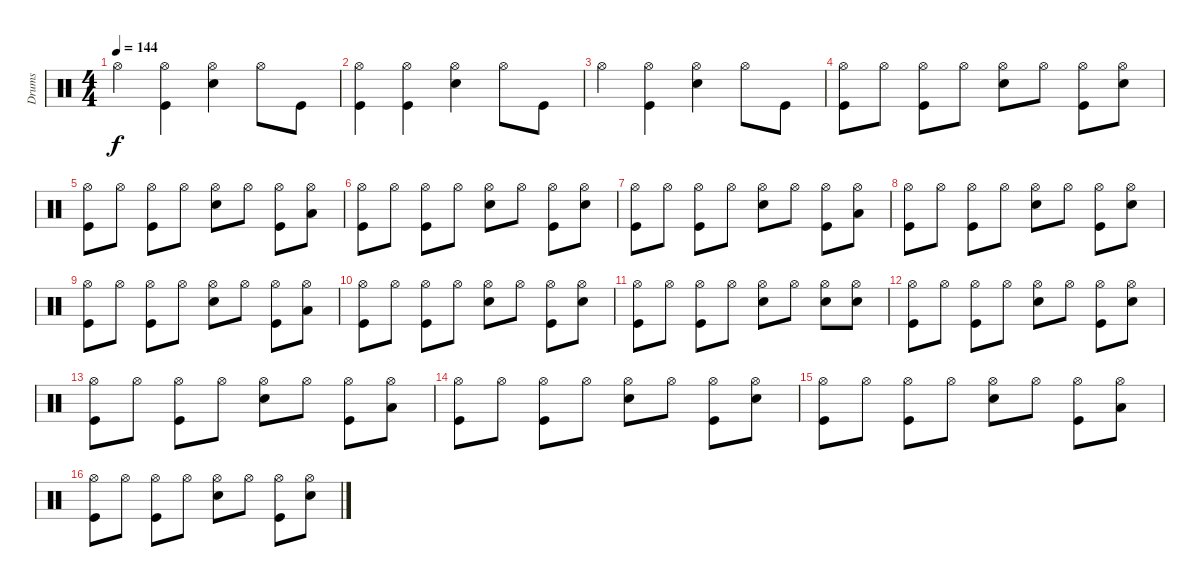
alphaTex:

\track ("Drums               " "Drums     ") {instrument percussion}
\staff {score}
\articulation defaults
\ts (4 4)
\tempo 144
\clef neutral
\ks c "Hi-Hat (open)".4{dy f}
("Hi-Hat (open)" "Kick (hit)").4 ("Snare (hit) 2" "Hi-Hat (open)").4 "Hi-Hat (open)".8 "Kick (hit)".8 |
("Kick (hit)" "Hi-Hat (open)").4 ("Kick (hit)" "Hi-Hat (open)").4 ("Snare (hit) 2" "Hi-Hat (open)").4 "Hi-Hat (open)".8 "Kick (hit)".8 |
"Hi-Hat (open)".4 ("Hi-Hat (open)" "Kick (hit)").4 ("Snare (hit) 2" "Hi-Hat (open)").4 "Hi-Hat (open)".8 "Kick (hit)".8 |
("Kick (hit)" "Hi-Hat (open)").8 "Hi-Hat (open)".8 ("Kick (hit)" "Hi-Hat (open)").8 "Hi-Hat (open)".8 ("Snare (hit) 2" "Hi-Hat (open)").8 "Hi-Hat (open)".8 ("Kick (hit)" "Hi-Hat (open)").8 ("Snare (hit) 2" "Hi-Hat (open)").8 |
("Hi-Hat (open)" "Kick (hit)").8 "Hi-Hat (open)".8 ("Kick (hit)" "Hi-Hat (open)").8 "Hi-Hat (open)".8 ("Snare (hit) 2" "Hi-Hat (open)").8 "Hi-Hat (open)".8 ("Kick (hit)" "Hi-Hat (open)").8 ("Low Tom (hit)" "Hi-Hat (open)").8 |
("Kick (hit)" "Hi-Hat (open)").8 "Hi-Hat (open)".8 ("Kick (hit)" "Hi-Hat (open)").8 "Hi-Hat (open)".8 ("Snare (hit) 2" "Hi-Hat (open)").8 "Hi-Hat (open)".8 ("Kick (hit)" "Hi-Hat (open)").8 ("Snare (hit) 2" "Hi-Hat (open)").8 |
("Kick (hit)" "Hi-Hat (open)").8 "Hi-Hat (open)".8 ("Kick (hit)" "Hi-Hat (open)").8 "Hi-Hat (open)".8 ("Snare (hit) 2" "Hi-Hat (open)").8 "Hi-Hat (open)".8 ("Kick (hit)" "Hi-Hat (open)").8 ("Low Tom (hit)" "Hi-Hat (open)").8 |
("Kick (hit)" "Hi-Hat (open)").8 "Hi-Hat (open)".8 ("Kick (hit)" "Hi-Hat (open)").8 "Hi-Hat (open)".8 ("Snare (hit) 2" "Hi-Hat (open)").8 "Hi-Hat (open)".8 ("Hi-Hat (open)" "Kick (hit)").8 ("Snare (hit) 2" "Hi-Hat (open)").8 |
("Kick (hit)" "Hi-Hat (open)").8 "Hi-Hat (open)".8 ("Kick (hit)" "Hi-Hat (open)").8 "Hi-Hat (open)".8 ("Snare (hit) 2" "Hi-Hat (open)").8 "Hi-Hat (open)".8 ("Kick (hit)" "Hi-Hat (open)").8 ("Low Tom (hit)" "Hi-Hat (open)").8 |
("Kick (hit)" "Hi-Hat (open)").8 "Hi-Hat (open)".8 ("Kick (hit)" "Hi-Hat (open)").8 "Hi-Hat (open)".8 ("Snare (hit) 2" "Hi-Hat (open)").8 "Hi-Hat (open)".8 ("Hi-Hat (open)" "Kick (hit)").8 ("Snare (hit) 2" "Hi-Hat (open)").8 |
("Kick (hit)" "Hi-Hat (open)").8 "Hi-Hat (open)".8 ("Kick (hit)" "Hi-Hat (open)").8 "Hi-Hat (open)".8 ("Snare (hit) 2" "Hi-Hat (open)").8 "Hi-Hat (open)".8 ("Hi-Hat (open)" "Snare (hit) 2").8 ("Snare (hit) 2" "Hi-Hat (open)").8 |
("Kick (hit)" "Hi-Hat (open)").8 "Hi-Hat (open)".8 ("Kick (hit)" "Hi-Hat (open)").8 "Hi-Hat (open)".8 ("Snare (hit) 2" "Hi-Hat (open)").8 "Hi-Hat (open)".8 ("Kick (hit)" "Hi-Hat (open)").8 ("Snare (hit) 2" "Hi-Hat (open)").8 |
("Hi-Hat (open)" "Kick (hit)").8 "Hi-Hat (open)".8 ("Kick (hit)" "Hi-Hat (open)").8 "Hi-Hat (open)".8 ("Snare (hit) 2" "Hi-Hat (open)").8 "Hi-Hat (open)".8 ("Kick (hit)" "Hi-Hat (open)").8 ("Low Tom (hit)" "Hi-Hat (open)").8 |
("Kick (hit)" "Hi-Hat (open)").8 "Hi-Hat (open)".8 ("Kick (hit)" "Hi-Hat (open)").8 "Hi-Hat (open)".8 ("Snare (hit) 2" "Hi-Hat (open)").8 "Hi-Hat (open)".8 ("Kick (hit)" "Hi-Hat (open)").8 ("Snare (hit) 2" "Hi-Hat (open)").8 |
("Kick (hit)" "Hi-Hat (open)").8 "Hi-Hat (open)".8 ("Kick (hit)" "Hi-Hat (open)").8 "Hi-Hat (open)".8 ("Snare (hit) 2" "Hi-Hat (open)").8 "Hi-Hat (open)".8 ("Kick (hit)" "Hi-Hat (open)").8 ("Low Tom (hit)" "Hi-Hat (open)").8 |
("Kick (hit)" "Hi-Hat (open)").8 "Hi-Hat (open)".8 ("Kick (hit)" "Hi-Hat (open)").8 "Hi-Hat (open)".8 ("Snare (hit) 2" "Hi-Hat (open)").8 "Hi-Hat (open)".8 ("Hi-Hat (open)" "Kick (hit)").8 ("Snare (hit) 2" "Hi-Hat (open)").8
